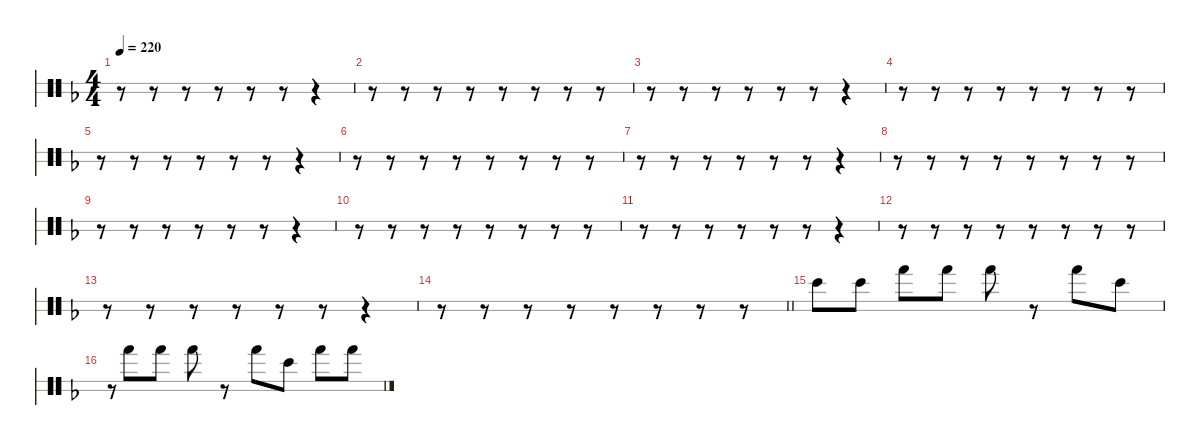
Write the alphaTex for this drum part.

\hideDynamics
\bracketExtendMode nobrackets
\singleTrackTrackNamePolicy hidden
\multiTrackTrackNamePolicy hidden
\firstSystemTrackNameMode fullname
\firstSystemTrackNameOrientation horizontal
\otherSystemsTrackNameOrientation horizontal
\track ("Bongos" "bngKit") {instrument percussion}
\staff {score 2}
\articulation defaults
\ts (4 4)
\tempo 220
\clef neutral
\ks dminor
r.8{dy p} r.8 r.8 r.8 r.8 r.8 r.4 |
r.8 r.8 r.8 r.8 r.8 r.8 r.8 r.8 |
r.8 r.8 r.8 r.8 r.8 r.8 r.4 |
r.8 r.8 r.8 r.8 r.8 r.8 r.8 r.8 |
r.8 r.8 r.8 r.8 r.8 r.8 r.4 |
r.8 r.8 r.8 r.8 r.8 r.8 r.8 r.8 |
r.8 r.8 r.8 r.8 r.8 r.8 r.4 |
r.8 r.8 r.8 r.8 r.8 r.8 r.8 r.8 |
r.8 r.8 r.8 r.8 r.8 r.8 r.4 |
r.8 r.8 r.8 r.8 r.8 r.8 r.8 r.8 |
r.8 r.8 r.8 r.8 r.8 r.8 r.4 |
r.8 r.8 r.8 r.8 r.8 r.8 r.8 r.8 |
r.8 r.8 r.8 r.8 r.8 r.8 r.4 |
\barLineRight lightlight
r.8 r.8 r.8 r.8 r.8 r.8 r.8 r.8 |
"Bongo High (hit)"{acc forcenatural}.8{dy mp} "Bongo High (hit)"{acc forcenatural}.8 "Hand (hit)"{acc forcenatural}.8{dy p} "Hand (hit)"{acc forcenatural}.8 "Hand (hit)"{acc forcenatural}.8{dy mp} r.8 "Hand (hit)"{acc forcenatural}.8 "Bongo High (hit)"{acc forcenatural}.8 |
r.8{gr} "Hand (hit)"{acc forcenatural}.8{dy p} "Hand (hit)"{acc forcenatural}.8 "Hand (hit)"{acc forcenatural}.8{dy mp} r.8 "Hand (hit)"{acc forcenatural}.8 "Bongo High (hit)"{acc forcenatural}.8 "Hand (hit)"{acc forcenatural}.8{dy p} "Hand (hit)"{acc forcenatural}.8
